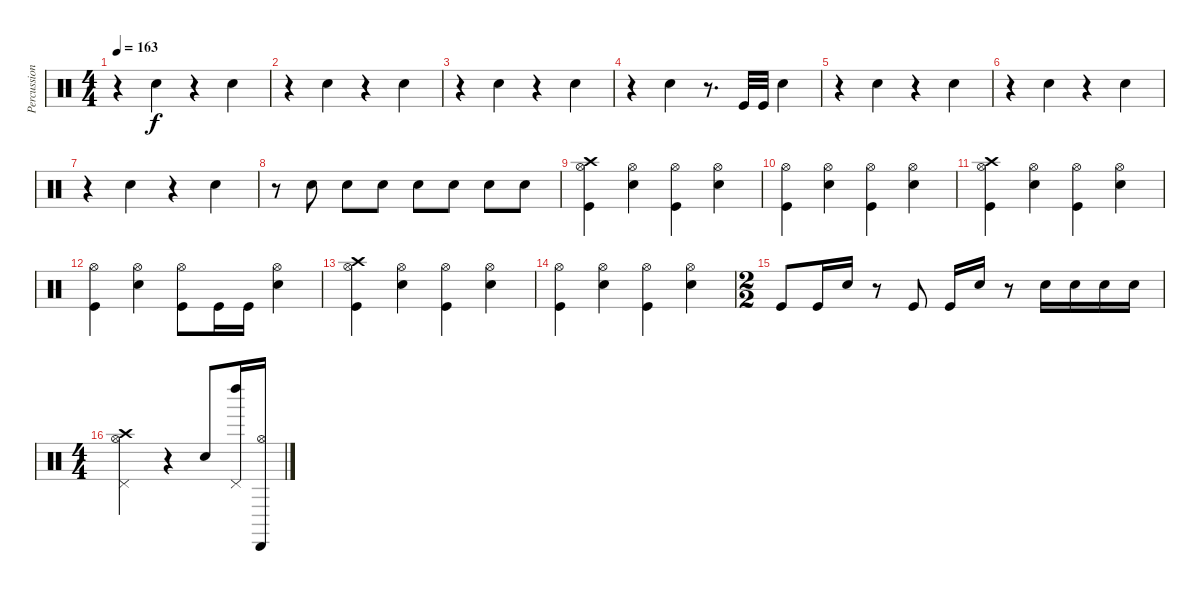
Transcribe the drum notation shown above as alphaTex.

\track ("Percussion" "Percussion") {instrument percussion}
\staff {score}
\articulation defaults
\ts (4 4)
\tempo 163
\clef neutral
\ks c
r.4{dy f} "Snare (hit) 2".4 r.4 "Snare (hit) 2".4 |
r.4 "Snare (hit) 2".4 r.4 "Snare (hit) 2".4 |
r.4 "Snare (hit) 2".4 r.4 "Snare (hit) 2".4 |
r.4 "Snare (hit) 2".4 r.8{d} "Kick (hit)".32 "Kick (hit)".32 "Snare (hit) 2".4 |
r.4 "Snare (hit) 2".4 r.4 "Snare (hit) 2".4 |
r.4 "Snare (hit) 2".4 r.4 "Snare (hit) 2".4 |
r.4 "Snare (hit) 2".4 r.4 "Snare (hit) 2".4 |
r.8 "Snare (hit) 2".8 "Snare (hit) 2".8 "Snare (hit) 2".8 "Snare (hit) 2".8 "Snare (hit) 2".8 "Snare (hit) 2".8 "Snare (hit) 2".8 |
("Crash high (hit)" "Hi-Hat (open)" "Kick (hit)").4 ("Hi-Hat (open)" "Snare (hit) 2").4 ("Hi-Hat (open)" "Kick (hit)").4 ("Hi-Hat (open)" "Snare (hit) 2").4 |
("Hi-Hat (open)" "Kick (hit)").4 ("Hi-Hat (open)" "Snare (hit) 2").4 ("Hi-Hat (open)" "Kick (hit)").4 ("Hi-Hat (open)" "Snare (hit) 2").4 |
("Crash high (hit)" "Hi-Hat (open)" "Kick (hit)").4 ("Hi-Hat (open)" "Snare (hit) 2").4 ("Hi-Hat (open)" "Kick (hit)").4 ("Hi-Hat (open)" "Snare (hit) 2").4 |
("Hi-Hat (open)" "Kick (hit)").4 ("Hi-Hat (open)" "Snare (hit) 2").4 ("Hi-Hat (open)" "Kick (hit)").8 "Kick (hit)".16 "Kick (hit)".16 ("Hi-Hat (open)" "Snare (hit) 2").4 |
("Crash high (hit)" "Hi-Hat (open)" "Kick (hit)").4 ("Hi-Hat (open)" "Snare (hit) 2").4 ("Hi-Hat (open)" "Kick (hit)").4 ("Hi-Hat (open)" "Snare (hit) 2").4 |
("Hi-Hat (open)" "Kick (hit)").4 ("Hi-Hat (open)" "Snare (hit) 2").4 ("Hi-Hat (open)" "Kick (hit)").4 ("Hi-Hat (open)" "Snare (hit) 2").4 |
\ts (2 2)
"Kick (hit)".8 "Kick (hit)".16 "Snare (hit) 2".16 r.8 "Kick (hit)".8 "Kick (hit)".16 "Snare (hit) 2".16 r.8 "Snare (hit) 2".16 "Snare (hit) 2".16 "Snare (hit) 2".16 "Snare (hit) 2".16 |
\ts (4 4)
("Crash high (hit)" "Hi-Hat (open)" "Pedal Hi-Hat (hit)").2 r.4 "Snare (hit) 2".8 ("Left Maraca (hit)" "Pedal Hi-Hat (hit)").16 ("Cabasa (hit)" "Hi-Hat (open)").16
